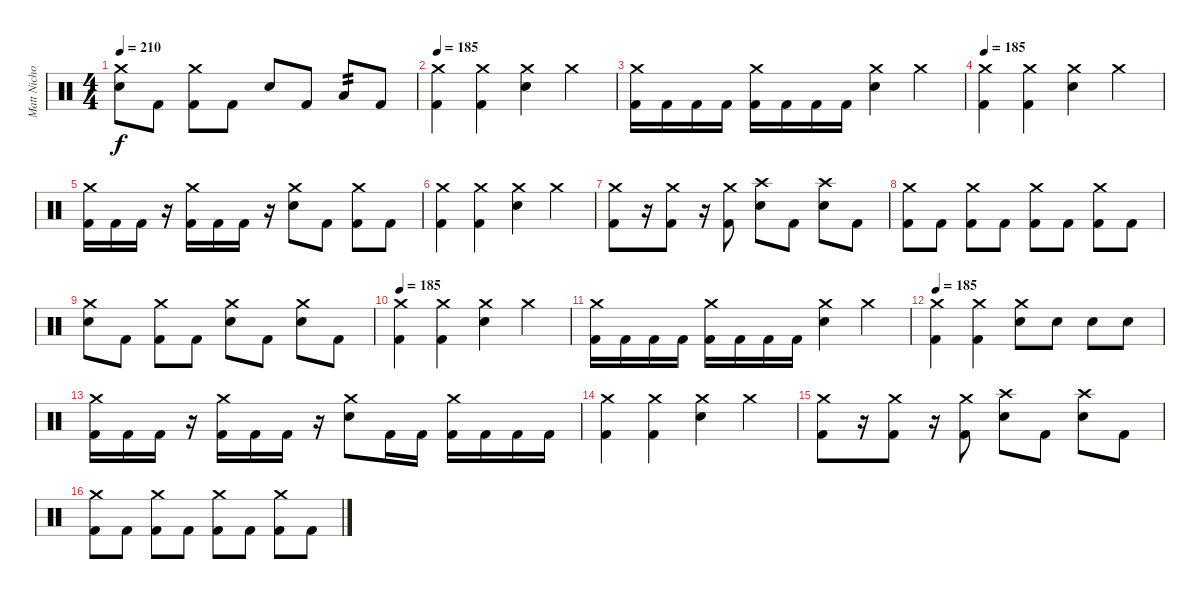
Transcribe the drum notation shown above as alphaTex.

\track ("Matt Nichols" "Matt Nicho") {instrument percussion}
\staff {score}
\articulation defaults
\ts (4 4)
\tempo 210
\clef neutral
\ks c
("Crash medium (hit)" "Electric Snare (hit)").8{dy f} "Kick (hit) 2".8 ("Crash medium (hit)" "Kick (hit) 2").8 "Kick (hit) 2".8 "Electric Snare (hit)".8 "Kick (hit) 2".8 "Low Floor Tom (hit)".8{tp 2} "Kick (hit) 2".8 |
\tempo 185
("Crash medium (hit)" "Kick (hit) 2").4 ("Crash medium (hit)" "Kick (hit) 2").4 ("Crash medium (hit)" "Electric Snare (hit)").4 "Crash medium (hit)".4 |
("Crash medium (hit)" "Kick (hit) 2").16 "Kick (hit) 2".16 "Kick (hit) 2".16 "Kick (hit) 2".16 ("Crash medium (hit)" "Kick (hit) 2").16 "Kick (hit) 2".16 "Kick (hit) 2".16 "Kick (hit) 2".16 ("Crash medium (hit)" "Electric Snare (hit)").4 "Crash medium (hit)".4 |
\tempo 185
("Crash medium (hit)" "Kick (hit) 2").4 ("Crash medium (hit)" "Kick (hit) 2").4 ("Crash medium (hit)" "Electric Snare (hit)").4 "Crash medium (hit)".4 |
("Crash medium (hit)" "Kick (hit) 2").16 "Kick (hit) 2".16 "Kick (hit) 2".16 r.16 ("Crash medium (hit)" "Kick (hit) 2").16 "Kick (hit) 2".16 "Kick (hit) 2".16 r.16 ("Crash medium (hit)" "Electric Snare (hit)").8 "Kick (hit) 2".8 ("Crash medium (hit)" "Kick (hit) 2").8 "Kick (hit) 2".8 |
("Crash medium (hit)" "Kick (hit) 2").4 ("Crash medium (hit)" "Kick (hit) 2").4 ("Crash medium (hit)" "Electric Snare (hit)").4 "Crash medium (hit)".4 |
("Crash medium (hit)" "Kick (hit) 2").8 r.16 ("Crash medium (hit)" "Kick (hit) 2").8 r.16 ("Crash medium (hit)" "Kick (hit) 2").8 ("Crash high (hit)" "Electric Snare (hit)").8 "Kick (hit) 2".8 ("Crash high (hit)" "Electric Snare (hit)").8 "Kick (hit) 2".8 |
("Crash medium (hit)" "Kick (hit) 2").8 "Kick (hit) 2".8 ("Crash medium (hit)" "Kick (hit) 2").8 "Kick (hit) 2".8 ("Crash medium (hit)" "Kick (hit) 2").8 "Kick (hit) 2".8 ("Crash medium (hit)" "Kick (hit) 2").8 "Kick (hit) 2".8 |
("Crash medium (hit)" "Electric Snare (hit)").8 "Kick (hit) 2".8 ("Crash medium (hit)" "Kick (hit) 2").8 "Kick (hit) 2".8 ("Crash medium (hit)" "Electric Snare (hit)").8 "Kick (hit) 2".8 ("Crash medium (hit)" "Electric Snare (hit)").8 "Kick (hit) 2".8 |
\tempo 185
("Crash medium (hit)" "Kick (hit) 2").4 ("Crash medium (hit)" "Kick (hit) 2").4 ("Crash medium (hit)" "Electric Snare (hit)").4 "Crash medium (hit)".4 |
("Crash medium (hit)" "Kick (hit) 2").16 "Kick (hit) 2".16 "Kick (hit) 2".16 "Kick (hit) 2".16 ("Crash medium (hit)" "Kick (hit) 2").16 "Kick (hit) 2".16 "Kick (hit) 2".16 "Kick (hit) 2".16 ("Crash medium (hit)" "Electric Snare (hit)").4 "Crash medium (hit)".4 |
\tempo 185
("Crash medium (hit)" "Kick (hit) 2").4 ("Crash medium (hit)" "Kick (hit) 2").4 ("Crash medium (hit)" "Electric Snare (hit)").8 "Electric Snare (hit)".8 "Electric Snare (hit)".8 "Electric Snare (hit)".8 |
("Crash medium (hit)" "Kick (hit) 2").16 "Kick (hit) 2".16 "Kick (hit) 2".16 r.16 ("Crash medium (hit)" "Kick (hit) 2").16 "Kick (hit) 2".16 "Kick (hit) 2".16 r.16 ("Crash medium (hit)" "Electric Snare (hit)").8 "Kick (hit) 2".16 "Kick (hit) 2".16 ("Crash medium (hit)" "Kick (hit) 2").16 "Kick (hit) 2".16 "Kick (hit) 2".16 "Kick (hit) 2".16 |
("Crash medium (hit)" "Kick (hit) 2").4 ("Crash medium (hit)" "Kick (hit) 2").4 ("Crash medium (hit)" "Electric Snare (hit)").4 "Crash medium (hit)".4 |
("Crash medium (hit)" "Kick (hit) 2").8 r.16 ("Crash medium (hit)" "Kick (hit) 2").8 r.16 ("Crash medium (hit)" "Kick (hit) 2").8 ("Crash high (hit)" "Electric Snare (hit)").8 "Kick (hit) 2".8 ("Crash high (hit)" "Electric Snare (hit)").8 "Kick (hit) 2".8 |
("Crash medium (hit)" "Kick (hit) 2").8 "Kick (hit) 2".8 ("Crash medium (hit)" "Kick (hit) 2").8 "Kick (hit) 2".8 ("Crash medium (hit)" "Kick (hit) 2").8 "Kick (hit) 2".8 ("Crash medium (hit)" "Kick (hit) 2").8 "Kick (hit) 2".8
